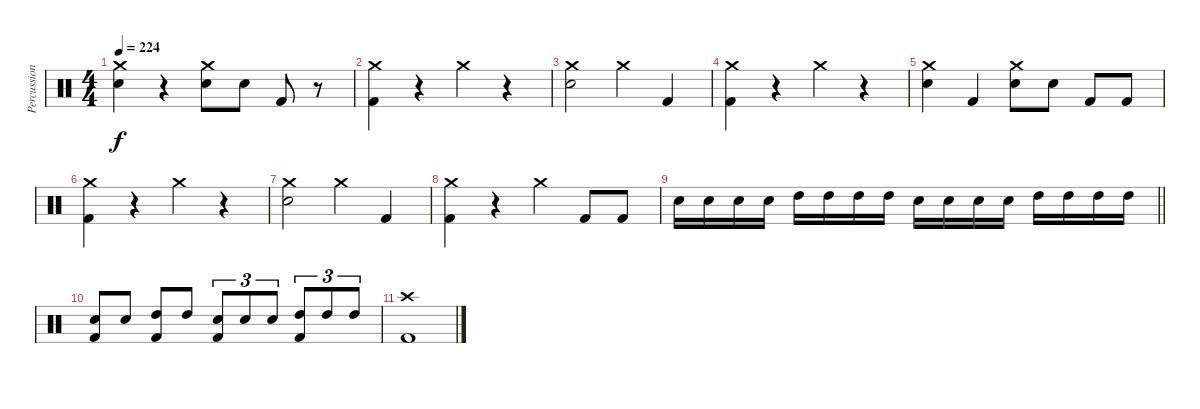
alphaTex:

\track ("Percussion" "Percussion") {instrument percussion}
\staff {score}
\articulation defaults
\ts (4 4)
\tempo 224
\clef neutral
\ks c
("Snare (hit) 2" "Crash medium (hit)").4{dy f} r.4 ("Snare (hit) 2" "Crash medium (hit)").8 "Snare (hit) 2".8 "Kick (hit) 2".8 r.8 |
("Kick (hit) 2" "Crash medium (hit)").4 r.4 "Crash medium (hit)".4 r.4 |
("Snare (hit) 2" "Crash medium (hit)").2 "Crash medium (hit)".4 "Kick (hit) 2".4 |
("Kick (hit) 2" "Crash medium (hit)").4 r.4 "Crash medium (hit)".4 r.4 |
("Snare (hit) 2" "Crash medium (hit)").4 "Kick (hit) 2".4 ("Snare (hit) 2" "Crash medium (hit)").8 "Snare (hit) 2".8 "Kick (hit) 2".8 "Kick (hit) 2".8 |
("Kick (hit) 2" "Crash medium (hit)").4 r.4 "Crash medium (hit)".4 r.4 |
("Snare (hit) 2" "Crash medium (hit)").2 "Crash medium (hit)".4 "Kick (hit) 2".4 |
("Kick (hit) 2" "Crash medium (hit)").4 r.4 "Crash medium (hit)".4 "Kick (hit) 2".8 "Kick (hit) 2".8 |
\barLineRight lightlight "Snare (hit) 2".16 "Snare (hit) 2".16 "Snare (hit) 2".16 "Snare (hit) 2".16 "High Tom (hit)".16 "High Tom (hit)".16 "High Tom (hit)".16 "High Tom (hit)".16 "Snare (hit) 2".16 "Snare (hit) 2".16 "Snare (hit) 2".16 "Snare (hit) 2".16 "High Tom (hit)".16 "High Tom (hit)".16 "High Tom (hit)".16 "High Tom (hit)".16
|
("Electric Snare (hit)" "Kick (hit) 2").8 "Electric Snare (hit)".8 ("High Tom (hit)" "Kick (hit) 2").8 "High Tom (hit)".8 ("Electric Snare (hit)" "Kick (hit) 2").8{tu (3 2)} "Electric Snare (hit)".8{tu (3 2)} "Electric Snare (hit)".8{tu (3 2)} ("High Tom (hit)" "Kick (hit) 2").8{tu (3 2)} "High Tom (hit)".8{tu (3 2)} "High Tom (hit)".8{tu (3 2)} |
("Crash high (hit)" "Kick (hit) 2").1
